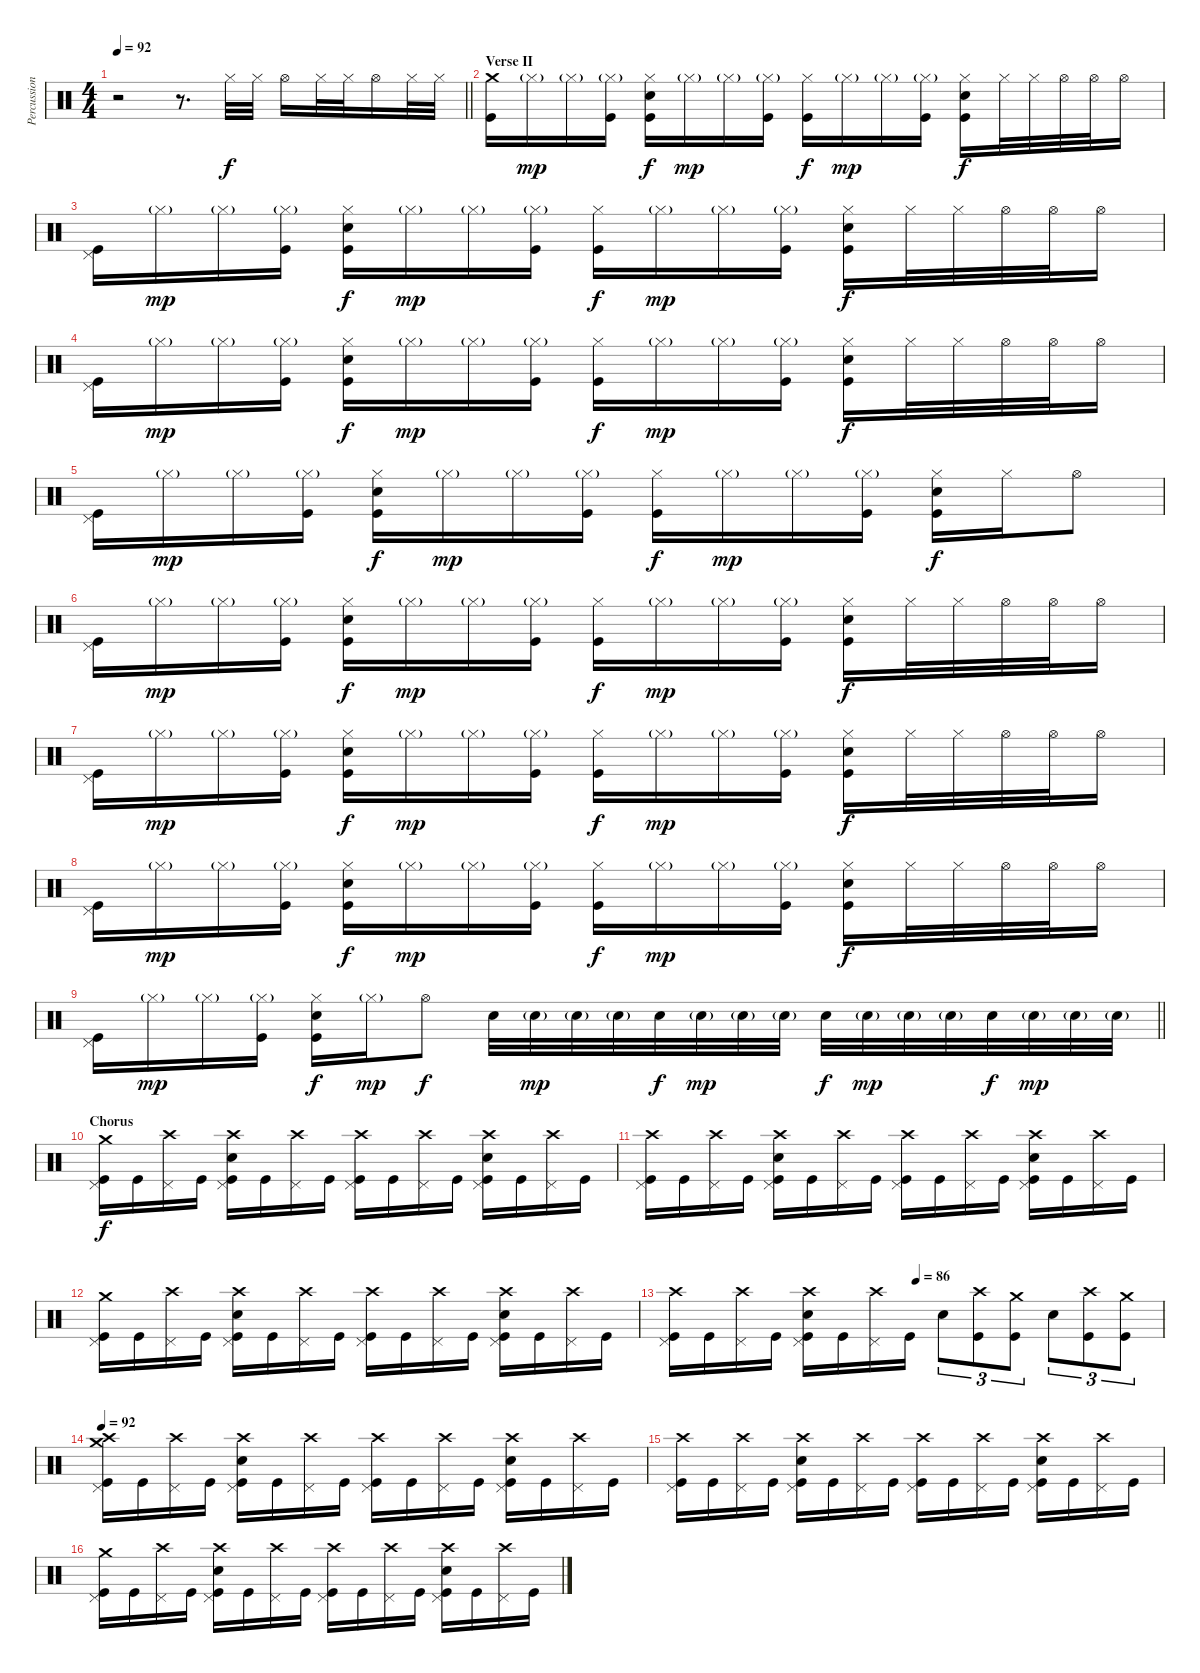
\track ("Percussion" "Percussion") {instrument percussion}
\staff {score}
\articulation defaults
\ts (4 4)
\tempo 92
\clef neutral
\barLineRight lightlight
\ks c
r.2{dy f} r.8{d} "Hi-Hat (closed)".32 "Hi-Hat (closed)".32 "Hi-Hat (open)".16 "Hi-Hat (closed)".32 "Hi-Hat (closed)".32 "Hi-Hat (open)".16 "Hi-Hat (closed)".32 "Hi-Hat (closed)".32 |
\section ("" "Verse II")
("Crash medium (hit)" "Kick (hit)").16 "Hi-Hat (closed)"{g}.16{dy mp} "Hi-Hat (closed)"{g}.16 ("Hi-Hat (closed)"{g} "Kick (hit)").16 ("Hi-Hat (closed)" "Electric Snare (hit)" "Kick (hit)").16{dy f} "Hi-Hat (closed)"{g}.16{dy mp} "Hi-Hat (closed)"{g}.16 ("Hi-Hat (closed)"{g} "Kick (hit)").16 ("Hi-Hat (closed)" "Kick (hit)").16{dy f} "Hi-Hat (closed)"{g}.16{dy mp} "Hi-Hat (closed)"{g}.16 ("Hi-Hat (closed)"{g} "Kick (hit)").16 ("Hi-Hat (closed)" "Electric Snare (hit)" "Kick (hit)").16{dy f} "Hi-Hat (closed)".32 "Hi-Hat (closed)".32 "Hi-Hat (open)".32 "Hi-Hat (open)".32 "Hi-Hat (open)".16 |
("Pedal Hi-Hat (hit)" "Kick (hit)").16 "Hi-Hat (closed)"{g}.16{dy mp} "Hi-Hat (closed)"{g}.16 ("Hi-Hat (closed)"{g} "Kick (hit)").16 ("Hi-Hat (closed)" "Electric Snare (hit)" "Kick (hit)").16{dy f} "Hi-Hat (closed)"{g}.16{dy mp} "Hi-Hat (closed)"{g}.16 ("Hi-Hat (closed)"{g} "Kick (hit)").16 ("Hi-Hat (closed)" "Kick (hit)").16{dy f} "Hi-Hat (closed)"{g}.16{dy mp} "Hi-Hat (closed)"{g}.16 ("Hi-Hat (closed)"{g} "Kick (hit)").16 ("Hi-Hat (closed)" "Electric Snare (hit)" "Kick (hit)").16{dy f} "Hi-Hat (closed)".32 "Hi-Hat (closed)".32 "Hi-Hat (open)".32 "Hi-Hat (open)".32 "Hi-Hat (open)".16 |
("Pedal Hi-Hat (hit)" "Kick (hit)").16 "Hi-Hat (closed)"{g}.16{dy mp} "Hi-Hat (closed)"{g}.16 ("Hi-Hat (closed)"{g} "Kick (hit)").16 ("Hi-Hat (closed)" "Electric Snare (hit)" "Kick (hit)").16{dy f} "Hi-Hat (closed)"{g}.16{dy mp} "Hi-Hat (closed)"{g}.16 ("Hi-Hat (closed)"{g} "Kick (hit)").16 ("Hi-Hat (closed)" "Kick (hit)").16{dy f} "Hi-Hat (closed)"{g}.16{dy mp} "Hi-Hat (closed)"{g}.16 ("Hi-Hat (closed)"{g} "Kick (hit)").16 ("Hi-Hat (closed)" "Electric Snare (hit)" "Kick (hit)").16{dy f} "Hi-Hat (closed)".32 "Hi-Hat (closed)".32 "Hi-Hat (open)".32 "Hi-Hat (open)".32 "Hi-Hat (open)".16 |
("Pedal Hi-Hat (hit)" "Kick (hit)").16 "Hi-Hat (closed)"{g}.16{dy mp} "Hi-Hat (closed)"{g}.16 ("Hi-Hat (closed)"{g} "Kick (hit)").16 ("Hi-Hat (closed)" "Electric Snare (hit)" "Kick (hit)").16{dy f} "Hi-Hat (closed)"{g}.16{dy mp} "Hi-Hat (closed)"{g}.16 ("Hi-Hat (closed)"{g} "Kick (hit)").16 ("Hi-Hat (closed)" "Kick (hit)").16{dy f} "Hi-Hat (closed)"{g}.16{dy mp} "Hi-Hat (closed)"{g}.16 ("Hi-Hat (closed)"{g} "Kick (hit)").16 ("Hi-Hat (closed)" "Electric Snare (hit)" "Kick (hit)").16{dy f} "Hi-Hat (closed)".16 "Hi-Hat (open)".8 |
("Pedal Hi-Hat (hit)" "Kick (hit)").16 "Hi-Hat (closed)"{g}.16{dy mp} "Hi-Hat (closed)"{g}.16 ("Hi-Hat (closed)"{g} "Kick (hit)").16 ("Hi-Hat (closed)" "Electric Snare (hit)" "Kick (hit)").16{dy f} "Hi-Hat (closed)"{g}.16{dy mp} "Hi-Hat (closed)"{g}.16 ("Hi-Hat (closed)"{g} "Kick (hit)").16 ("Hi-Hat (closed)" "Kick (hit)").16{dy f} "Hi-Hat (closed)"{g}.16{dy mp} "Hi-Hat (closed)"{g}.16 ("Hi-Hat (closed)"{g} "Kick (hit)").16 ("Hi-Hat (closed)" "Electric Snare (hit)" "Kick (hit)").16{dy f} "Hi-Hat (closed)".32 "Hi-Hat (closed)".32 "Hi-Hat (open)".32 "Hi-Hat (open)".32 "Hi-Hat (open)".16 |
("Pedal Hi-Hat (hit)" "Kick (hit)").16 "Hi-Hat (closed)"{g}.16{dy mp} "Hi-Hat (closed)"{g}.16 ("Hi-Hat (closed)"{g} "Kick (hit)").16 ("Hi-Hat (closed)" "Electric Snare (hit)" "Kick (hit)").16{dy f} "Hi-Hat (closed)"{g}.16{dy mp} "Hi-Hat (closed)"{g}.16 ("Hi-Hat (closed)"{g} "Kick (hit)").16 ("Hi-Hat (closed)" "Kick (hit)").16{dy f} "Hi-Hat (closed)"{g}.16{dy mp} "Hi-Hat (closed)"{g}.16 ("Hi-Hat (closed)"{g} "Kick (hit)").16 ("Hi-Hat (closed)" "Electric Snare (hit)" "Kick (hit)").16{dy f} "Hi-Hat (closed)".32 "Hi-Hat (closed)".32 "Hi-Hat (open)".32 "Hi-Hat (open)".32 "Hi-Hat (open)".16 |
("Pedal Hi-Hat (hit)" "Kick (hit)").16 "Hi-Hat (closed)"{g}.16{dy mp} "Hi-Hat (closed)"{g}.16 ("Hi-Hat (closed)"{g} "Kick (hit)").16 ("Hi-Hat (closed)" "Electric Snare (hit)" "Kick (hit)").16{dy f} "Hi-Hat (closed)"{g}.16{dy mp} "Hi-Hat (closed)"{g}.16 ("Hi-Hat (closed)"{g} "Kick (hit)").16 ("Hi-Hat (closed)" "Kick (hit)").16{dy f} "Hi-Hat (closed)"{g}.16{dy mp} "Hi-Hat (closed)"{g}.16 ("Hi-Hat (closed)"{g} "Kick (hit)").16 ("Hi-Hat (closed)" "Electric Snare (hit)" "Kick (hit)").16{dy f} "Hi-Hat (closed)".32 "Hi-Hat (closed)".32 "Hi-Hat (open)".32 "Hi-Hat (open)".32 "Hi-Hat (open)".16 |
\barLineRight lightlight
("Pedal Hi-Hat (hit)" "Kick (hit)").16 "Hi-Hat (closed)"{g}.16{dy mp} "Hi-Hat (closed)"{g}.16 ("Hi-Hat (closed)"{g} "Kick (hit)").16 ("Hi-Hat (closed)" "Electric Snare (hit)" "Kick (hit)").16{dy f} "Hi-Hat (closed)"{g}.16{dy mp} "Hi-Hat (open)".8{dy f} "Electric Snare (hit)".32 "Electric Snare (hit)"{g}.32{dy mp} "Electric Snare (hit)"{g}.32 "Electric Snare (hit)"{g}.32 "Electric Snare (hit)".32{dy f} "Electric Snare (hit)"{g}.32{dy mp} "Electric Snare (hit)"{g}.32 "Electric Snare (hit)"{g}.32 "Electric Snare (hit)".32{dy f} "Electric Snare (hit)"{g}.32{dy mp} "Electric Snare (hit)"{g}.32 "Electric Snare (hit)"{g}.32 "Electric Snare (hit)".32{dy f} "Electric Snare (hit)"{g}.32{dy mp} "Electric Snare (hit)"{g}.32 "Electric Snare (hit)"{g}.32 |
\section ("" "Chorus")
("Crash medium (hit)" "Pedal Hi-Hat (hit)" "Kick (hit)").16{dy f} "Kick (hit)".16 ("Crash high (hit)" "Pedal Hi-Hat (hit)").16 "Kick (hit)".16 ("Crash high (hit)" "Pedal Hi-Hat (hit)" "Electric Snare (hit)" "Kick (hit)").16 "Kick (hit)".16 ("Crash high (hit)" "Pedal Hi-Hat (hit)").16 "Kick (hit)".16 ("Crash high (hit)" "Pedal Hi-Hat (hit)" "Kick (hit)").16 "Kick (hit)".16 ("Crash high (hit)" "Pedal Hi-Hat (hit)").16 "Kick (hit)".16 ("Crash high (hit)" "Pedal Hi-Hat (hit)" "Electric Snare (hit)" "Kick (hit)").16 "Kick (hit)".16 ("Crash high (hit)" "Pedal Hi-Hat (hit)").16 "Kick (hit)".16 |
("Crash high (hit)" "Pedal Hi-Hat (hit)" "Kick (hit)").16 "Kick (hit)".16 ("Crash high (hit)" "Pedal Hi-Hat (hit)").16 "Kick (hit)".16 ("Crash high (hit)" "Pedal Hi-Hat (hit)" "Electric Snare (hit)" "Kick (hit)").16 "Kick (hit)".16 ("Crash high (hit)" "Pedal Hi-Hat (hit)").16 "Kick (hit)".16 ("Crash high (hit)" "Pedal Hi-Hat (hit)" "Kick (hit)").16 "Kick (hit)".16 ("Crash high (hit)" "Pedal Hi-Hat (hit)").16 "Kick (hit)".16 ("Crash high (hit)" "Pedal Hi-Hat (hit)" "Electric Snare (hit)" "Kick (hit)").16 "Kick (hit)".16 ("Crash high (hit)" "Pedal Hi-Hat (hit)").16 "Kick (hit)".16 |
("Crash medium (hit)" "Pedal Hi-Hat (hit)" "Kick (hit)").16 "Kick (hit)".16 ("Crash high (hit)" "Pedal Hi-Hat (hit)").16 "Kick (hit)".16 ("Crash high (hit)" "Pedal Hi-Hat (hit)" "Electric Snare (hit)" "Kick (hit)").16 "Kick (hit)".16 ("Crash high (hit)" "Pedal Hi-Hat (hit)").16 "Kick (hit)".16 ("Crash high (hit)" "Pedal Hi-Hat (hit)" "Kick (hit)").16 "Kick (hit)".16 ("Crash high (hit)" "Pedal Hi-Hat (hit)").16 "Kick (hit)".16 ("Crash high (hit)" "Pedal Hi-Hat (hit)" "Electric Snare (hit)" "Kick (hit)").16 "Kick (hit)".16 ("Crash high (hit)" "Pedal Hi-Hat (hit)").16 "Kick (hit)".16 |
\tempo (86 0.5)
("Crash high (hit)" "Pedal Hi-Hat (hit)" "Kick (hit)").16 "Kick (hit)".16 ("Crash high (hit)" "Pedal Hi-Hat (hit)").16 "Kick (hit)".16 ("Crash high (hit)" "Pedal Hi-Hat (hit)" "Electric Snare (hit)" "Kick (hit)").16 "Kick (hit)".16 ("Crash high (hit)" "Pedal Hi-Hat (hit)").16 "Kick (hit)".16 "Electric Snare (hit)".8{tu (3 2)} ("Crash high (hit)" "Kick (hit)").8{tu (3 2)} ("Crash medium (hit)" "Kick (hit)").8{tu (3 2)} "Electric Snare (hit)".8{tu (3 2)} ("Crash high (hit)" "Kick (hit)").8{tu (3 2)} ("Crash medium (hit)" "Kick (hit)").8{tu (3 2)} |
\tempo 92
("Crash high (hit)" "Crash medium (hit)" "Pedal Hi-Hat (hit)" "Kick (hit)").16 "Kick (hit)".16 ("Crash high (hit)" "Pedal Hi-Hat (hit)").16 "Kick (hit)".16 ("Crash high (hit)" "Pedal Hi-Hat (hit)" "Electric Snare (hit)" "Kick (hit)").16 "Kick (hit)".16 ("Crash high (hit)" "Pedal Hi-Hat (hit)").16 "Kick (hit)".16 ("Crash high (hit)" "Pedal Hi-Hat (hit)" "Kick (hit)").16 "Kick (hit)".16 ("Crash high (hit)" "Pedal Hi-Hat (hit)").16 "Kick (hit)".16 ("Crash high (hit)" "Pedal Hi-Hat (hit)" "Electric Snare (hit)" "Kick (hit)").16 "Kick (hit)".16 ("Crash high (hit)" "Pedal Hi-Hat (hit)").16 "Kick (hit)".16 |
("Crash high (hit)" "Pedal Hi-Hat (hit)" "Kick (hit)").16 "Kick (hit)".16 ("Crash high (hit)" "Pedal Hi-Hat (hit)").16 "Kick (hit)".16 ("Crash high (hit)" "Pedal Hi-Hat (hit)" "Electric Snare (hit)" "Kick (hit)").16 "Kick (hit)".16 ("Crash high (hit)" "Pedal Hi-Hat (hit)").16 "Kick (hit)".16 ("Crash high (hit)" "Pedal Hi-Hat (hit)" "Kick (hit)").16 "Kick (hit)".16 ("Crash high (hit)" "Pedal Hi-Hat (hit)").16 "Kick (hit)".16 ("Crash high (hit)" "Pedal Hi-Hat (hit)" "Electric Snare (hit)" "Kick (hit)").16 "Kick (hit)".16 ("Crash high (hit)" "Pedal Hi-Hat (hit)").16 "Kick (hit)".16 |
("Crash medium (hit)" "Pedal Hi-Hat (hit)" "Kick (hit)").16 "Kick (hit)".16 ("Crash high (hit)" "Pedal Hi-Hat (hit)").16 "Kick (hit)".16 ("Crash high (hit)" "Pedal Hi-Hat (hit)" "Electric Snare (hit)" "Kick (hit)").16 "Kick (hit)".16 ("Crash high (hit)" "Pedal Hi-Hat (hit)").16 "Kick (hit)".16 ("Crash high (hit)" "Pedal Hi-Hat (hit)" "Kick (hit)").16 "Kick (hit)".16 ("Crash high (hit)" "Pedal Hi-Hat (hit)").16 "Kick (hit)".16 ("Crash high (hit)" "Pedal Hi-Hat (hit)" "Electric Snare (hit)" "Kick (hit)").16 "Kick (hit)".16 ("Crash high (hit)" "Pedal Hi-Hat (hit)").16 "Kick (hit)".16
